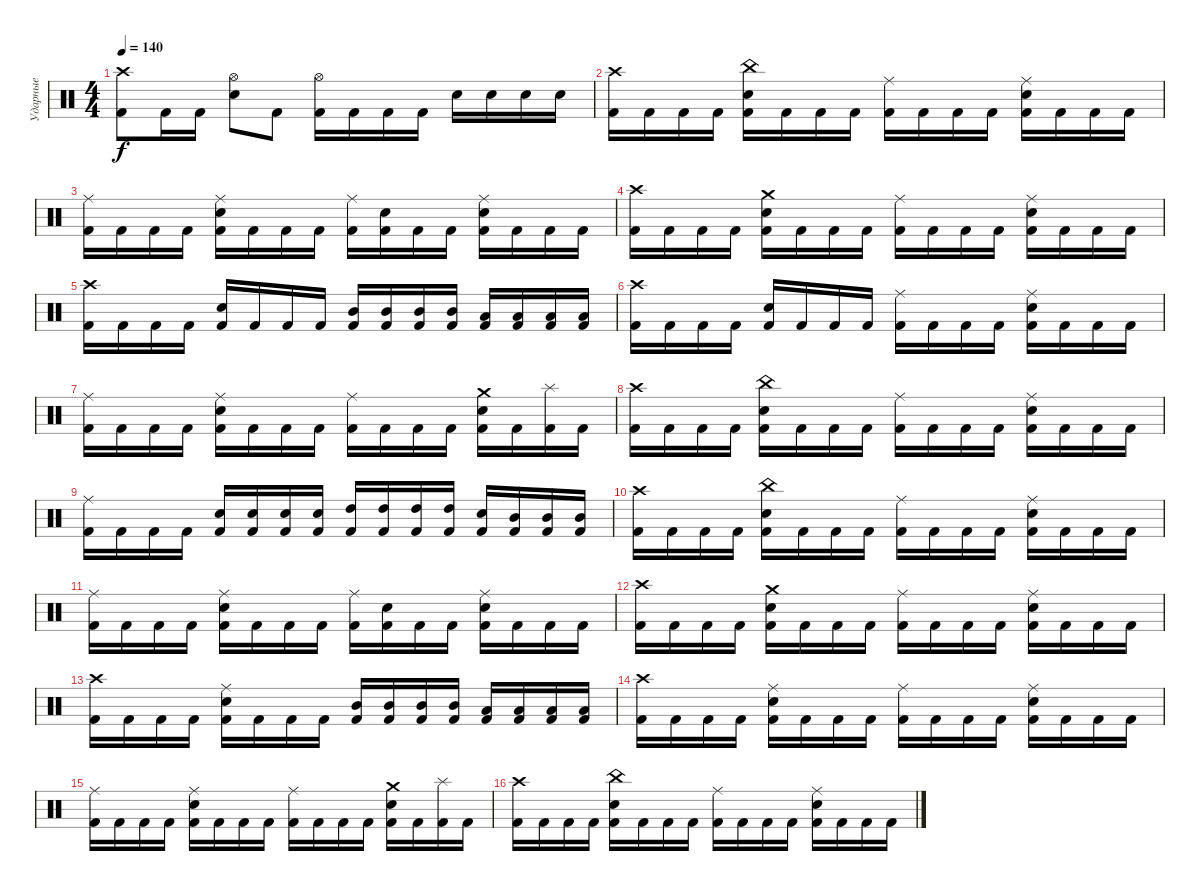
\track ("Ударные" "Ударные") {instrument percussion}
\staff {score}
\articulation defaults
\ts (4 4)
\tempo 140
\clef neutral
\ks c
("Kick (hit) 2" "Crash high (hit)").8{dy f} "Kick (hit) 2".16 "Kick (hit) 2".16 ("Hi-Hat (open)" "Electric Snare (hit)").8 "Kick (hit) 2".8 ("Kick (hit) 2" "Hi-Hat (open)").16 "Kick (hit) 2".16 "Kick (hit) 2".16 "Kick (hit) 2".16 "Electric Snare (hit)".16 "Electric Snare (hit)".16 "Electric Snare (hit)".16 "Electric Snare (hit)".16 |
("Kick (hit) 2" "Crash high (hit)").16 "Kick (hit) 2".16 "Kick (hit) 2".16 "Kick (hit) 2".16 ("Kick (hit) 2" "China (hit)" "Electric Snare (hit)").16 "Kick (hit) 2".16 "Kick (hit) 2".16 "Kick (hit) 2".16 ("Kick (hit) 2" "Ride (middle)").16 "Kick (hit) 2".16 "Kick (hit) 2".16 "Kick (hit) 2".16 ("Kick (hit) 2" "Ride (middle)" "Electric Snare (hit)").16 "Kick (hit) 2".16 "Kick (hit) 2".16 "Kick (hit) 2".16 |
("Kick (hit) 2" "Ride (middle)").16 "Kick (hit) 2".16 "Kick (hit) 2".16 "Kick (hit) 2".16 ("Kick (hit) 2" "Ride (middle)" "Electric Snare (hit)").16 "Kick (hit) 2".16 "Kick (hit) 2".16 "Kick (hit) 2".16 ("Kick (hit) 2" "Ride (middle)").16 ("Kick (hit) 2" "Electric Snare (hit)").16 "Kick (hit) 2".16 "Kick (hit) 2".16 ("Kick (hit) 2" "Ride (middle)" "Electric Snare (hit)").16 "Kick (hit) 2".16 "Kick (hit) 2".16 "Kick (hit) 2".16 |
("Kick (hit) 2" "Crash high (hit)").16 "Kick (hit) 2".16 "Kick (hit) 2".16 "Kick (hit) 2".16 ("Kick (hit) 2" "Crash medium (hit)" "Electric Snare (hit)").16 "Kick (hit) 2".16 "Kick (hit) 2".16 "Kick (hit) 2".16 ("Kick (hit) 2" "Ride (middle)").16 "Kick (hit) 2".16 "Kick (hit) 2".16 "Kick (hit) 2".16 ("Kick (hit) 2" "Ride (middle)" "Electric Snare (hit)").16 "Kick (hit) 2".16 "Kick (hit) 2".16 "Kick (hit) 2".16 |
("Kick (hit) 2" "Crash high (hit)").16 "Kick (hit) 2".16 "Kick (hit) 2".16 "Kick (hit) 2".16 ("Kick (hit) 2" "Electric Snare (hit)").16 "Kick (hit) 2".16 "Kick (hit) 2".16 "Kick (hit) 2".16 ("Kick (hit) 2" "Mid Tom (hit)").16 ("Kick (hit) 2" "Mid Tom (hit)").16 ("Kick (hit) 2" "Mid Tom (hit)").16 ("Kick (hit) 2" "Mid Tom (hit)").16 ("Kick (hit) 2" "Low Tom (hit)").16 ("Kick (hit) 2" "Low Tom (hit)").16 ("Kick (hit) 2" "Low Tom (hit)").16 ("Kick (hit) 2" "Low Tom (hit)").16 |
("Kick (hit) 2" "Crash high (hit)").16 "Kick (hit) 2".16 "Kick (hit) 2".16 "Kick (hit) 2".16 ("Kick (hit) 2" "Electric Snare (hit)").16 "Kick (hit) 2".16 "Kick (hit) 2".16 "Kick (hit) 2".16 ("Kick (hit) 2" "Ride (middle)").16 "Kick (hit) 2".16 "Kick (hit) 2".16 "Kick (hit) 2".16 ("Kick (hit) 2" "Ride (middle)" "Electric Snare (hit)").16 "Kick (hit) 2".16 "Kick (hit) 2".16 "Kick (hit) 2".16 |
("Kick (hit) 2" "Ride (middle)").16 "Kick (hit) 2".16 "Kick (hit) 2".16 "Kick (hit) 2".16 ("Kick (hit) 2" "Ride (middle)" "Electric Snare (hit)").16 "Kick (hit) 2".16 "Kick (hit) 2".16 "Kick (hit) 2".16 ("Kick (hit) 2" "Ride (middle)").16 "Kick (hit) 2".16 "Kick (hit) 2".16 "Kick (hit) 2".16 ("Kick (hit) 2" "Crash medium (hit)" "Electric Snare (hit)").16 "Kick (hit) 2".16 ("Kick (hit) 2" "Splash (hit)").16 "Kick (hit) 2".16 |
("Kick (hit) 2" "Crash high (hit)").16 "Kick (hit) 2".16 "Kick (hit) 2".16 "Kick (hit) 2".16 ("Kick (hit) 2" "China (hit)" "Electric Snare (hit)").16 "Kick (hit) 2".16 "Kick (hit) 2".16 "Kick (hit) 2".16 ("Kick (hit) 2" "Ride (middle)").16 "Kick (hit) 2".16 "Kick (hit) 2".16 "Kick (hit) 2".16 ("Kick (hit) 2" "Ride (middle)" "Electric Snare (hit)").16 "Kick (hit) 2".16 "Kick (hit) 2".16 "Kick (hit) 2".16 |
("Kick (hit) 2" "Ride (middle)").16 "Kick (hit) 2".16 "Kick (hit) 2".16 "Kick (hit) 2".16 ("Kick (hit) 2" "Electric Snare (hit)").16 ("Kick (hit) 2" "Electric Snare (hit)").16 ("Kick (hit) 2" "Electric Snare (hit)").16 ("Kick (hit) 2" "Electric Snare (hit)").16 ("Kick (hit) 2" "High Tom (hit)").16 ("Kick (hit) 2" "High Tom (hit)").16 ("Kick (hit) 2" "High Tom (hit)").16 ("Kick (hit) 2" "High Tom (hit)").16 ("Kick (hit) 2" "Electric Snare (hit)").16 ("Kick (hit) 2" "Mid Tom (hit)").16 ("Kick (hit) 2" "Mid Tom (hit)").16 ("Kick (hit) 2" "Mid Tom (hit)").16 |
("Kick (hit) 2" "Crash high (hit)").16 "Kick (hit) 2".16 "Kick (hit) 2".16 "Kick (hit) 2".16 ("Kick (hit) 2" "China (hit)" "Electric Snare (hit)").16 "Kick (hit) 2".16 "Kick (hit) 2".16 "Kick (hit) 2".16 ("Kick (hit) 2" "Ride (middle)").16 "Kick (hit) 2".16 "Kick (hit) 2".16 "Kick (hit) 2".16 ("Kick (hit) 2" "Ride (middle)" "Electric Snare (hit)").16 "Kick (hit) 2".16 "Kick (hit) 2".16 "Kick (hit) 2".16 |
("Kick (hit) 2" "Ride (middle)").16 "Kick (hit) 2".16 "Kick (hit) 2".16 "Kick (hit) 2".16 ("Kick (hit) 2" "Ride (middle)" "Electric Snare (hit)").16 "Kick (hit) 2".16 "Kick (hit) 2".16 "Kick (hit) 2".16 ("Kick (hit) 2" "Ride (middle)").16 ("Kick (hit) 2" "Electric Snare (hit)").16 "Kick (hit) 2".16 "Kick (hit) 2".16 ("Kick (hit) 2" "Ride (middle)" "Electric Snare (hit)").16 "Kick (hit) 2".16 "Kick (hit) 2".16 "Kick (hit) 2".16 |
("Kick (hit) 2" "Crash high (hit)").16 "Kick (hit) 2".16 "Kick (hit) 2".16 "Kick (hit) 2".16 ("Kick (hit) 2" "Crash medium (hit)" "Electric Snare (hit)").16 "Kick (hit) 2".16 "Kick (hit) 2".16 "Kick (hit) 2".16 ("Kick (hit) 2" "Ride (middle)").16 "Kick (hit) 2".16 "Kick (hit) 2".16 "Kick (hit) 2".16 ("Kick (hit) 2" "Ride (middle)" "Electric Snare (hit)").16 "Kick (hit) 2".16 "Kick (hit) 2".16 "Kick (hit) 2".16 |
("Kick (hit) 2" "Crash high (hit)").16 "Kick (hit) 2".16 "Kick (hit) 2".16 "Kick (hit) 2".16 ("Kick (hit) 2" "Ride (middle)" "Electric Snare (hit)").16 "Kick (hit) 2".16 "Kick (hit) 2".16 "Kick (hit) 2".16 ("Kick (hit) 2" "Mid Tom (hit)").16 ("Kick (hit) 2" "Mid Tom (hit)").16 ("Kick (hit) 2" "Mid Tom (hit)").16 ("Kick (hit) 2" "Mid Tom (hit)").16 ("Kick (hit) 2" "Low Tom (hit)").16 ("Kick (hit) 2" "Low Tom (hit)").16 ("Kick (hit) 2" "Low Tom (hit)").16 ("Kick (hit) 2" "Low Tom (hit)").16 |
("Kick (hit) 2" "Crash high (hit)").16 "Kick (hit) 2".16 "Kick (hit) 2".16 "Kick (hit) 2".16 ("Kick (hit) 2" "Ride (middle)" "Electric Snare (hit)").16 "Kick (hit) 2".16 "Kick (hit) 2".16 "Kick (hit) 2".16 ("Kick (hit) 2" "Ride (middle)").16 "Kick (hit) 2".16 "Kick (hit) 2".16 "Kick (hit) 2".16 ("Kick (hit) 2" "Ride (middle)" "Electric Snare (hit)").16 "Kick (hit) 2".16 "Kick (hit) 2".16 "Kick (hit) 2".16 |
("Kick (hit) 2" "Ride (middle)").16 "Kick (hit) 2".16 "Kick (hit) 2".16 "Kick (hit) 2".16 ("Kick (hit) 2" "Ride (middle)" "Electric Snare (hit)").16 "Kick (hit) 2".16 "Kick (hit) 2".16 "Kick (hit) 2".16 ("Kick (hit) 2" "Ride (middle)").16 "Kick (hit) 2".16 "Kick (hit) 2".16 "Kick (hit) 2".16 ("Kick (hit) 2" "Crash medium (hit)" "Electric Snare (hit)").16 "Kick (hit) 2".16 ("Kick (hit) 2" "Splash (hit)").16 "Kick (hit) 2".16 |
("Kick (hit) 2" "Crash high (hit)").16 "Kick (hit) 2".16 "Kick (hit) 2".16 "Kick (hit) 2".16 ("Kick (hit) 2" "China (hit)" "Electric Snare (hit)").16 "Kick (hit) 2".16 "Kick (hit) 2".16 "Kick (hit) 2".16 ("Kick (hit) 2" "Ride (middle)").16 "Kick (hit) 2".16 "Kick (hit) 2".16 "Kick (hit) 2".16 ("Kick (hit) 2" "Ride (middle)" "Electric Snare (hit)").16 "Kick (hit) 2".16 "Kick (hit) 2".16 "Kick (hit) 2".16
